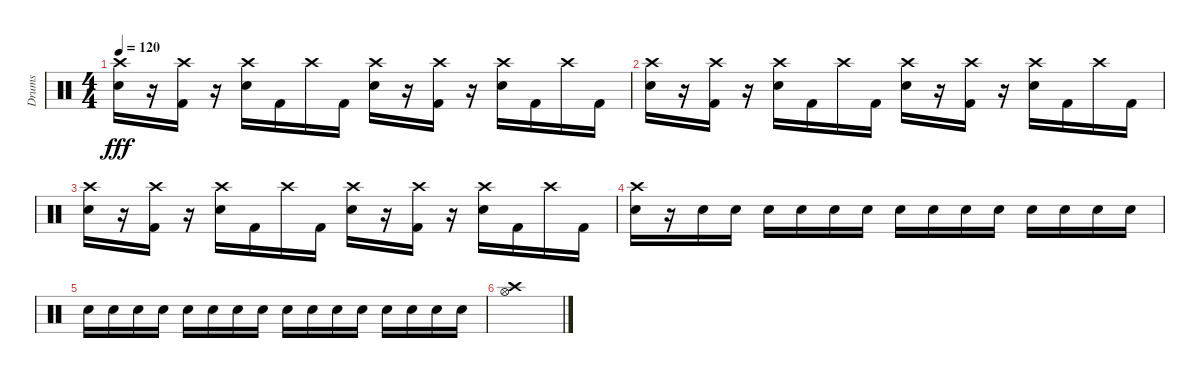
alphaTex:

\track ("Drums" "Drums") {instrument percussion}
\staff {score}
\articulation defaults
\ts (4 4)
\tempo 120
\clef neutral
\ks c
("Snare (hit) 2" "Crash high (hit)").16{dy fff} r.16 ("Kick (hit) 2" "Crash high (hit)").16 r.16 ("Snare (hit) 2" "Crash high (hit)").16 "Kick (hit) 2".16 "Crash high (hit)".16 "Kick (hit) 2".16 ("Snare (hit) 2" "Crash high (hit)").16 r.16 ("Kick (hit) 2" "Crash high (hit)").16 r.16 ("Snare (hit) 2" "Crash high (hit)").16 "Kick (hit) 2".16 "Crash high (hit)".16 "Kick (hit) 2".16 |
("Snare (hit) 2" "Crash high (hit)").16 r.16 ("Kick (hit) 2" "Crash high (hit)").16 r.16 ("Snare (hit) 2" "Crash high (hit)").16 "Kick (hit) 2".16 "Crash high (hit)".16 "Kick (hit) 2".16 ("Snare (hit) 2" "Crash high (hit)").16 r.16 ("Kick (hit) 2" "Crash high (hit)").16 r.16 ("Snare (hit) 2" "Crash high (hit)").16 "Kick (hit) 2".16 "Crash high (hit)".16 "Kick (hit) 2".16 |
("Snare (hit) 2" "Crash high (hit)").16 r.16 ("Kick (hit) 2" "Crash high (hit)").16 r.16 ("Snare (hit) 2" "Crash high (hit)").16 "Kick (hit) 2".16 "Crash high (hit)".16 "Kick (hit) 2".16 ("Snare (hit) 2" "Crash high (hit)").16 r.16 ("Kick (hit) 2" "Crash high (hit)").16 r.16 ("Snare (hit) 2" "Crash high (hit)").16 "Kick (hit) 2".16 "Crash high (hit)".16 "Kick (hit) 2".16 |
("Snare (hit) 2" "Crash high (hit)").16 r.16 "Snare (hit) 2".16 "Snare (hit) 2".16 "Snare (hit) 2".16 "Snare (hit) 2".16 "Snare (hit) 2".16 "Snare (hit) 2".16 "Snare (hit) 2".16 "Snare (hit) 2".16 "Snare (hit) 2".16 "Snare (hit) 2".16 "Snare (hit) 2".16 "Snare (hit) 2".16 "Snare (hit) 2".16 "Snare (hit) 2".16 |
"Snare (hit) 2".16 "Snare (hit) 2".16 "Snare (hit) 2".16 "Snare (hit) 2".16 "Snare (hit) 2".16 "Snare (hit) 2".16 "Snare (hit) 2".16 "Snare (hit) 2".16 "Snare (hit) 2".16 "Snare (hit) 2".16 "Snare (hit) 2".16 "Snare (hit) 2".16 "Snare (hit) 2".16 "Snare (hit) 2".16 "Snare (hit) 2".16 "Snare (hit) 2".16 |
("Crash high (hit)" "Hi-Hat (open)").1
